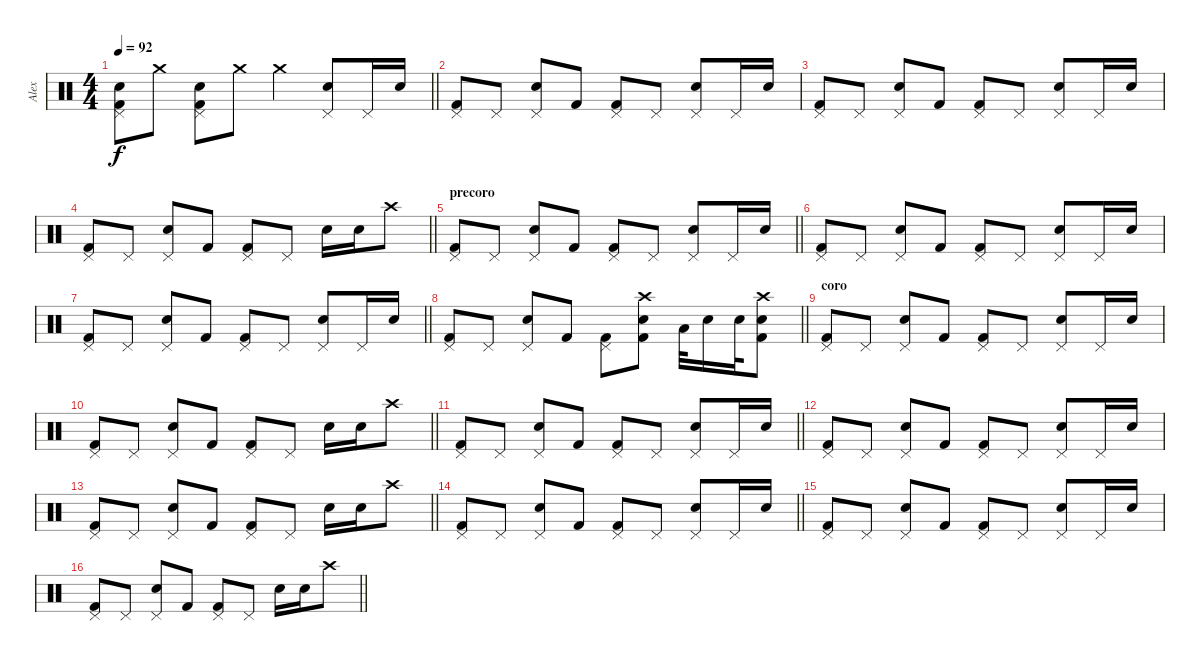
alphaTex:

\track ("Alex" "Alex") {instrument percussion}
\staff {score}
\articulation defaults
\ts (4 4)
\tempo 92
\clef neutral
\barLineRight lightlight
\ks c
("Pedal Hi-Hat (hit)" "Snare (hit) 2" "Kick (hit) 2").8{dy f} "Crash medium (hit)".8 ("Pedal Hi-Hat (hit)" "Snare (hit) 2" "Kick (hit) 2").8 "Crash medium (hit)".8 "Crash medium (hit)".4 ("Pedal Hi-Hat (hit)" "Snare (hit) 2").8 "Pedal Hi-Hat (hit)".16 "Snare (hit) 2".16 |
("Pedal Hi-Hat (hit)" "Kick (hit) 2").8 "Pedal Hi-Hat (hit)".8 ("Pedal Hi-Hat (hit)" "Snare (hit) 2").8 "Kick (hit) 2".8 ("Pedal Hi-Hat (hit)" "Kick (hit) 2").8 "Pedal Hi-Hat (hit)".8 ("Pedal Hi-Hat (hit)" "Snare (hit) 2").8 "Pedal Hi-Hat (hit)".16 "Snare (hit) 2".16 |
("Pedal Hi-Hat (hit)" "Kick (hit) 2").8 "Pedal Hi-Hat (hit)".8 ("Pedal Hi-Hat (hit)" "Snare (hit) 2").8 "Kick (hit) 2".8 ("Pedal Hi-Hat (hit)" "Kick (hit) 2").8 "Pedal Hi-Hat (hit)".8 ("Pedal Hi-Hat (hit)" "Snare (hit) 2").8 "Pedal Hi-Hat (hit)".16 "Snare (hit) 2".16 |
\barLineRight lightlight
("Pedal Hi-Hat (hit)" "Kick (hit) 2").8 "Pedal Hi-Hat (hit)".8 ("Pedal Hi-Hat (hit)" "Snare (hit) 2").8 "Kick (hit) 2".8 ("Pedal Hi-Hat (hit)" "Kick (hit) 2").8 "Pedal Hi-Hat (hit)".8 "Snare (hit) 2".16 "Snare (hit) 2".16 "Crash high (hit)".8 |
\section ("" "precoro")
\barLineRight lightlight
("Pedal Hi-Hat (hit)" "Kick (hit) 2").8 "Pedal Hi-Hat (hit)".8 ("Pedal Hi-Hat (hit)" "Snare (hit) 2").8 "Kick (hit) 2".8 ("Pedal Hi-Hat (hit)" "Kick (hit) 2").8 "Pedal Hi-Hat (hit)".8 ("Pedal Hi-Hat (hit)" "Snare (hit) 2").8 "Pedal Hi-Hat (hit)".16 "Snare (hit) 2".16 |
("Pedal Hi-Hat (hit)" "Kick (hit) 2").8 "Pedal Hi-Hat (hit)".8 ("Pedal Hi-Hat (hit)" "Snare (hit) 2").8 "Kick (hit) 2".8 ("Pedal Hi-Hat (hit)" "Kick (hit) 2").8 "Pedal Hi-Hat (hit)".8 ("Pedal Hi-Hat (hit)" "Snare (hit) 2").8 "Pedal Hi-Hat (hit)".16 "Snare (hit) 2".16 |
\barLineRight lightlight
("Pedal Hi-Hat (hit)" "Kick (hit) 2").8 "Pedal Hi-Hat (hit)".8 ("Pedal Hi-Hat (hit)" "Snare (hit) 2").8 "Kick (hit) 2".8 ("Pedal Hi-Hat (hit)" "Kick (hit) 2").8 "Pedal Hi-Hat (hit)".8 ("Pedal Hi-Hat (hit)" "Snare (hit) 2").8 "Pedal Hi-Hat (hit)".16 "Snare (hit) 2".16 |
\barLineRight lightlight
("Pedal Hi-Hat (hit)" "Kick (hit) 2").8 "Pedal Hi-Hat (hit)".8 ("Pedal Hi-Hat (hit)" "Snare (hit) 2").8 "Kick (hit) 2".8 ("Kick (hit) 2" "Pedal Hi-Hat (hit)").8 ("Crash high (hit)" "Snare (hit) 2" "Kick (hit) 2").8 "Low Tom (hit)".32 "Snare (hit) 2".16 "Snare (hit) 2".32 ("Crash high (hit)" "Kick (hit) 2" "Snare (hit) 2").8 |
\section ("" "coro")
("Pedal Hi-Hat (hit)" "Kick (hit) 2").8 "Pedal Hi-Hat (hit)".8 ("Pedal Hi-Hat (hit)" "Snare (hit) 2").8 "Kick (hit) 2".8 ("Pedal Hi-Hat (hit)" "Kick (hit) 2").8 "Pedal Hi-Hat (hit)".8 ("Pedal Hi-Hat (hit)" "Snare (hit) 2").8 "Pedal Hi-Hat (hit)".16 "Snare (hit) 2".16 |
\barLineRight lightlight
("Pedal Hi-Hat (hit)" "Kick (hit) 2").8 "Pedal Hi-Hat (hit)".8 ("Pedal Hi-Hat (hit)" "Snare (hit) 2").8 "Kick (hit) 2".8 ("Pedal Hi-Hat (hit)" "Kick (hit) 2").8 "Pedal Hi-Hat (hit)".8 "Snare (hit) 2".16 "Snare (hit) 2".16 "Crash high (hit)".8 |
\barLineRight lightlight
("Pedal Hi-Hat (hit)" "Kick (hit) 2").8 "Pedal Hi-Hat (hit)".8 ("Pedal Hi-Hat (hit)" "Snare (hit) 2").8 "Kick (hit) 2".8 ("Pedal Hi-Hat (hit)" "Kick (hit) 2").8 "Pedal Hi-Hat (hit)".8 ("Pedal Hi-Hat (hit)" "Snare (hit) 2").8 "Pedal Hi-Hat (hit)".16 "Snare (hit) 2".16 |
("Pedal Hi-Hat (hit)" "Kick (hit) 2").8 "Pedal Hi-Hat (hit)".8 ("Pedal Hi-Hat (hit)" "Snare (hit) 2").8 "Kick (hit) 2".8 ("Pedal Hi-Hat (hit)" "Kick (hit) 2").8 "Pedal Hi-Hat (hit)".8 ("Pedal Hi-Hat (hit)" "Snare (hit) 2").8 "Pedal Hi-Hat (hit)".16 "Snare (hit) 2".16 |
\barLineRight lightlight
("Pedal Hi-Hat (hit)" "Kick (hit) 2").8 "Pedal Hi-Hat (hit)".8 ("Pedal Hi-Hat (hit)" "Snare (hit) 2").8 "Kick (hit) 2".8 ("Pedal Hi-Hat (hit)" "Kick (hit) 2").8 "Pedal Hi-Hat (hit)".8 "Snare (hit) 2".16 "Snare (hit) 2".16 "Crash high (hit)".8 |
\barLineRight lightlight
("Pedal Hi-Hat (hit)" "Kick (hit) 2").8 "Pedal Hi-Hat (hit)".8 ("Pedal Hi-Hat (hit)" "Snare (hit) 2").8 "Kick (hit) 2".8 ("Pedal Hi-Hat (hit)" "Kick (hit) 2").8 "Pedal Hi-Hat (hit)".8 ("Pedal Hi-Hat (hit)" "Snare (hit) 2").8 "Pedal Hi-Hat (hit)".16 "Snare (hit) 2".16 |
("Pedal Hi-Hat (hit)" "Kick (hit) 2").8 "Pedal Hi-Hat (hit)".8 ("Pedal Hi-Hat (hit)" "Snare (hit) 2").8 "Kick (hit) 2".8 ("Pedal Hi-Hat (hit)" "Kick (hit) 2").8 "Pedal Hi-Hat (hit)".8 ("Pedal Hi-Hat (hit)" "Snare (hit) 2").8 "Pedal Hi-Hat (hit)".16 "Snare (hit) 2".16 |
\barLineRight lightlight
("Pedal Hi-Hat (hit)" "Kick (hit) 2").8 "Pedal Hi-Hat (hit)".8 ("Pedal Hi-Hat (hit)" "Snare (hit) 2").8 "Kick (hit) 2".8 ("Pedal Hi-Hat (hit)" "Kick (hit) 2").8 "Pedal Hi-Hat (hit)".8 "Snare (hit) 2".16 "Snare (hit) 2".16 "Crash high (hit)".8
